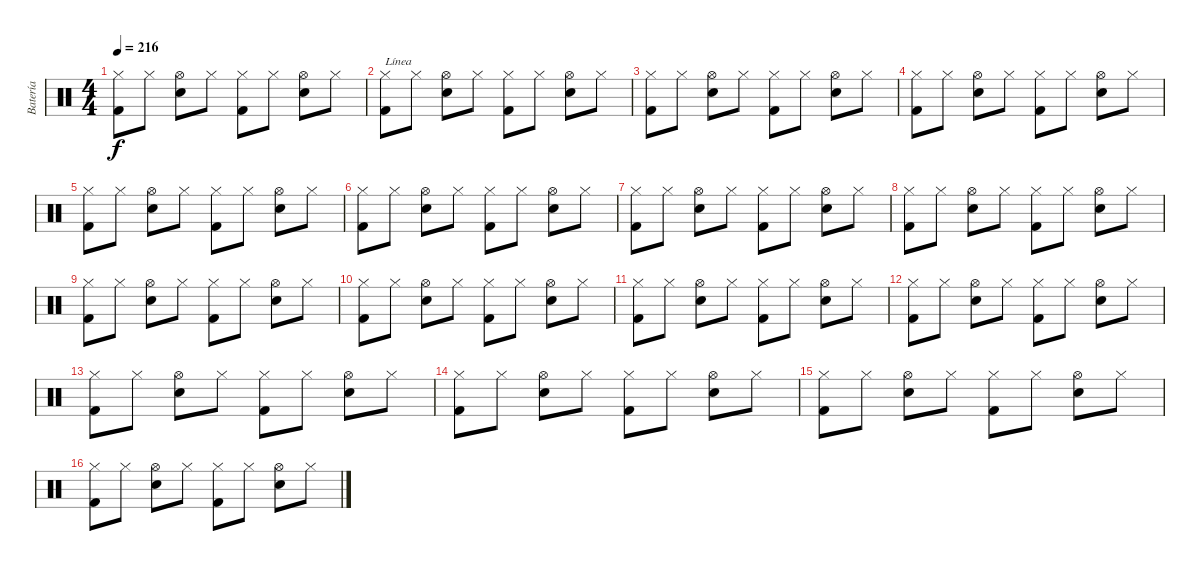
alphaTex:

\track ("Batería" "Batería") {instrument percussion}
\staff {score}
\articulation defaults
\ts (4 4)
\tempo 216
\clef neutral
\ks c
("Kick (hit) 2" "Hi-Hat (closed)").8{dy f} "Hi-Hat (closed)".8 ("Electric Snare (hit)" "Hi-Hat (open)").8 "Hi-Hat (closed)".8 ("Kick (hit) 2" "Hi-Hat (closed)").8 "Hi-Hat (closed)".8 ("Electric Snare (hit)" "Hi-Hat (open)").8 "Hi-Hat (closed)".8 |
("Kick (hit) 2" "Hi-Hat (closed)").8{txt "Línea"} "Hi-Hat (closed)".8 ("Electric Snare (hit)" "Hi-Hat (open)").8 "Hi-Hat (closed)".8 ("Kick (hit) 2" "Hi-Hat (closed)").8 "Hi-Hat (closed)".8 ("Electric Snare (hit)" "Hi-Hat (open)").8 "Hi-Hat (closed)".8 |
("Kick (hit) 2" "Hi-Hat (closed)").8 "Hi-Hat (closed)".8 ("Electric Snare (hit)" "Hi-Hat (open)").8 "Hi-Hat (closed)".8 ("Kick (hit) 2" "Hi-Hat (closed)").8 "Hi-Hat (closed)".8 ("Electric Snare (hit)" "Hi-Hat (open)").8 "Hi-Hat (closed)".8 |
("Kick (hit) 2" "Hi-Hat (closed)").8 "Hi-Hat (closed)".8 ("Electric Snare (hit)" "Hi-Hat (open)").8 "Hi-Hat (closed)".8 ("Kick (hit) 2" "Hi-Hat (closed)").8 "Hi-Hat (closed)".8 ("Electric Snare (hit)" "Hi-Hat (open)").8 "Hi-Hat (closed)".8 |
("Kick (hit) 2" "Hi-Hat (closed)").8 "Hi-Hat (closed)".8 ("Electric Snare (hit)" "Hi-Hat (open)").8 "Hi-Hat (closed)".8 ("Kick (hit) 2" "Hi-Hat (closed)").8 "Hi-Hat (closed)".8 ("Electric Snare (hit)" "Hi-Hat (open)").8 "Hi-Hat (closed)".8 |
("Kick (hit) 2" "Hi-Hat (closed)").8 "Hi-Hat (closed)".8 ("Electric Snare (hit)" "Hi-Hat (open)").8 "Hi-Hat (closed)".8 ("Kick (hit) 2" "Hi-Hat (closed)").8 "Hi-Hat (closed)".8 ("Electric Snare (hit)" "Hi-Hat (open)").8 "Hi-Hat (closed)".8 |
("Kick (hit) 2" "Hi-Hat (closed)").8 "Hi-Hat (closed)".8 ("Electric Snare (hit)" "Hi-Hat (open)").8 "Hi-Hat (closed)".8 ("Kick (hit) 2" "Hi-Hat (closed)").8 "Hi-Hat (closed)".8 ("Electric Snare (hit)" "Hi-Hat (open)").8 "Hi-Hat (closed)".8 |
("Kick (hit) 2" "Hi-Hat (closed)").8 "Hi-Hat (closed)".8 ("Electric Snare (hit)" "Hi-Hat (open)").8 "Hi-Hat (closed)".8 ("Kick (hit) 2" "Hi-Hat (closed)").8 "Hi-Hat (closed)".8 ("Electric Snare (hit)" "Hi-Hat (open)").8 "Hi-Hat (closed)".8 |
("Kick (hit) 2" "Hi-Hat (closed)").8 "Hi-Hat (closed)".8 ("Electric Snare (hit)" "Hi-Hat (open)").8 "Hi-Hat (closed)".8 ("Kick (hit) 2" "Hi-Hat (closed)").8 "Hi-Hat (closed)".8 ("Electric Snare (hit)" "Hi-Hat (open)").8 "Hi-Hat (closed)".8 |
("Kick (hit) 2" "Hi-Hat (closed)").8 "Hi-Hat (closed)".8 ("Electric Snare (hit)" "Hi-Hat (open)").8 "Hi-Hat (closed)".8 ("Kick (hit) 2" "Hi-Hat (closed)").8 "Hi-Hat (closed)".8 ("Electric Snare (hit)" "Hi-Hat (open)").8 "Hi-Hat (closed)".8 |
("Kick (hit) 2" "Hi-Hat (closed)").8 "Hi-Hat (closed)".8 ("Electric Snare (hit)" "Hi-Hat (open)").8 "Hi-Hat (closed)".8 ("Kick (hit) 2" "Hi-Hat (closed)").8 "Hi-Hat (closed)".8 ("Electric Snare (hit)" "Hi-Hat (open)").8 "Hi-Hat (closed)".8 |
("Kick (hit) 2" "Hi-Hat (closed)").8 "Hi-Hat (closed)".8 ("Electric Snare (hit)" "Hi-Hat (open)").8 "Hi-Hat (closed)".8 ("Kick (hit) 2" "Hi-Hat (closed)").8 "Hi-Hat (closed)".8 ("Electric Snare (hit)" "Hi-Hat (open)").8 "Hi-Hat (closed)".8 |
("Kick (hit) 2" "Hi-Hat (closed)").8 "Hi-Hat (closed)".8 ("Electric Snare (hit)" "Hi-Hat (open)").8 "Hi-Hat (closed)".8 ("Kick (hit) 2" "Hi-Hat (closed)").8 "Hi-Hat (closed)".8 ("Electric Snare (hit)" "Hi-Hat (open)").8 "Hi-Hat (closed)".8 |
("Kick (hit) 2" "Hi-Hat (closed)").8 "Hi-Hat (closed)".8 ("Electric Snare (hit)" "Hi-Hat (open)").8 "Hi-Hat (closed)".8 ("Kick (hit) 2" "Hi-Hat (closed)").8 "Hi-Hat (closed)".8 ("Electric Snare (hit)" "Hi-Hat (open)").8 "Hi-Hat (closed)".8 |
("Kick (hit) 2" "Hi-Hat (closed)").8 "Hi-Hat (closed)".8 ("Electric Snare (hit)" "Hi-Hat (open)").8 "Hi-Hat (closed)".8 ("Kick (hit) 2" "Hi-Hat (closed)").8 "Hi-Hat (closed)".8 ("Electric Snare (hit)" "Hi-Hat (open)").8 "Hi-Hat (closed)".8 |
("Kick (hit) 2" "Hi-Hat (closed)").8 "Hi-Hat (closed)".8 ("Electric Snare (hit)" "Hi-Hat (open)").8 "Hi-Hat (closed)".8 ("Kick (hit) 2" "Hi-Hat (closed)").8 "Hi-Hat (closed)".8 ("Electric Snare (hit)" "Hi-Hat (open)").8 "Hi-Hat (closed)".8
